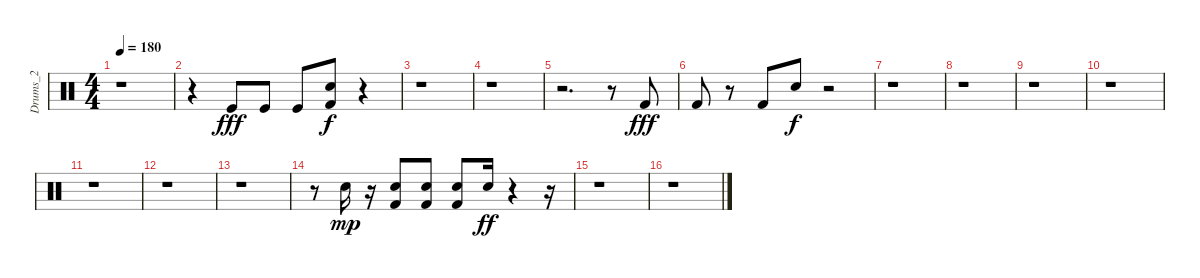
\track ("Drums_2" "Drums_2") {instrument percussion}
\staff {score}
\articulation defaults
\ts (4 4)
\tempo 180
\clef neutral
\ks c
r.1{dy f} |
r.4 "Kick (hit)".8{dy fff} "Kick (hit)".8 "Kick (hit)".8 ("Kick (hit) 2" "Snare (hit) 2").8{dy f} r.4 |
r.1 |
r.1 |
r.2{d} r.8 "Kick (hit) 2".8{dy fff} |
"Kick (hit) 2".8 r.8 "Kick (hit) 2".8 "Snare (hit) 2".8{dy f} r.2 |
r.1 |
r.1 |
r.1 |
r.1 |
r.1 |
r.1 |
r.1 |
r.8 "Snare (hit) 2".16{dy mp} r.16 ("Kick (hit) 2" "Snare (hit) 2").8 ("Kick (hit) 2" "Snare (hit) 2").8 ("Kick (hit) 2" "Snare (hit) 2").8 "Snare (hit) 2".16{dy ff} r.4 r.16 |
r.1 |
r.1
